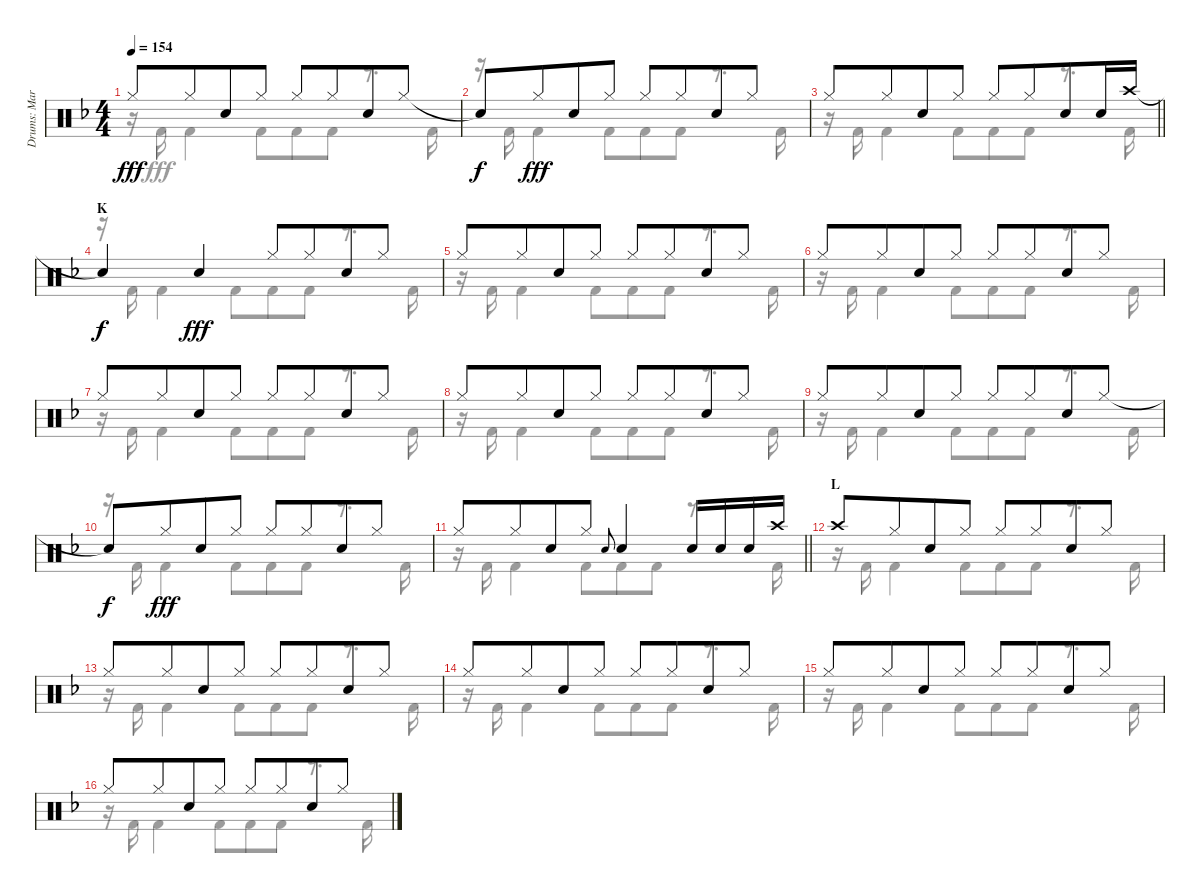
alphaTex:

\track ("Drums: Mark" "Drums: Mar") {instrument percussion}
\staff {score}
\articulation defaults
\voice
\ts (4 4)
\tempo 154
\clef neutral
\ks f "Hi-Hat (closed)".8{dy fff} "Hi-Hat (closed)".8{beam merge} "Snare (hit) 2".8 "Hi-Hat (closed)".8 "Hi-Hat (closed)".8 "Hi-Hat (closed)".8{beam merge} "Snare (hit) 2".8 "Hi-Hat (closed)".8
|
"Snare (hit)"{t}.8{dy f} "Hi-Hat (closed)".8{dy fff beam merge} "Snare (hit) 2".8 "Hi-Hat (closed)".8 "Hi-Hat (closed)".8 "Hi-Hat (closed)".8{beam merge} "Snare (hit) 2".8 "Hi-Hat (closed)".8 |
\barLineRight lightlight "Hi-Hat (closed)".8 "Hi-Hat (closed)".8{beam merge} "Snare (hit) 2".8 "Hi-Hat (closed)".8 "Hi-Hat (closed)".8 "Hi-Hat (closed)".8{beam merge} "Snare (hit) 2".8 "Snare (hit) 2".16 "Crash high (hit)".16
|
\section ("" "K")
"Snare (hit)"{t}.4{dy f beam merge} "Snare (hit) 2".4{dy fff} "Hi-Hat (closed)".8 "Hi-Hat (closed)".8{beam merge} "Snare (hit) 2".8 "Hi-Hat (closed)".8 |
"Hi-Hat (closed)".8 "Hi-Hat (closed)".8{beam merge} "Snare (hit) 2".8 "Hi-Hat (closed)".8 "Hi-Hat (closed)".8 "Hi-Hat (closed)".8{beam merge} "Snare (hit) 2".8 "Hi-Hat (closed)".8 |
"Hi-Hat (closed)".8 "Hi-Hat (closed)".8{beam merge} "Snare (hit) 2".8 "Hi-Hat (closed)".8 "Hi-Hat (closed)".8 "Hi-Hat (closed)".8{beam merge} "Snare (hit) 2".8 "Hi-Hat (closed)".8 |
"Hi-Hat (closed)".8 "Hi-Hat (closed)".8{beam merge} "Snare (hit) 2".8 "Hi-Hat (closed)".8 "Hi-Hat (closed)".8 "Hi-Hat (closed)".8{beam merge} "Snare (hit) 2".8 "Hi-Hat (closed)".8 |
"Hi-Hat (closed)".8 "Hi-Hat (closed)".8{beam merge} "Snare (hit) 2".8 "Hi-Hat (closed)".8 "Hi-Hat (closed)".8 "Hi-Hat (closed)".8{beam merge} "Snare (hit) 2".8 "Hi-Hat (closed)".8 |
"Hi-Hat (closed)".8 "Hi-Hat (closed)".8{beam merge} "Snare (hit) 2".8 "Hi-Hat (closed)".8 "Hi-Hat (closed)".8 "Hi-Hat (closed)".8{beam merge} "Snare (hit) 2".8 "Hi-Hat (closed)".8 |
"Snare (hit)"{t}.8{dy f} "Hi-Hat (closed)".8{dy fff beam merge} "Snare (hit) 2".8 "Hi-Hat (closed)".8 "Hi-Hat (closed)".8 "Hi-Hat (closed)".8{beam merge} "Snare (hit) 2".8 "Hi-Hat (closed)".8 |
\barLineRight lightlight "Hi-Hat (closed)".8 "Hi-Hat (closed)".8{beam merge} "Snare (hit) 2".8 "Hi-Hat (closed)".8 "Electric Snare (hit)".8{gr onbeat} "Snare (hit) 2".4{beam merge} "Snare (hit) 2".16 "Snare (hit) 2".16 "Snare (hit) 2".16 "Crash high (hit)".16
|
\section ("" "L")
"Crash high (hit)".8 "Hi-Hat (closed)".8{beam merge} "Snare (hit) 2".8 "Hi-Hat (closed)".8 "Hi-Hat (closed)".8 "Hi-Hat (closed)".8{beam merge} "Snare (hit) 2".8 "Hi-Hat (closed)".8 |
"Hi-Hat (closed)".8 "Hi-Hat (closed)".8{beam merge} "Snare (hit) 2".8 "Hi-Hat (closed)".8 "Hi-Hat (closed)".8 "Hi-Hat (closed)".8{beam merge} "Snare (hit) 2".8 "Hi-Hat (closed)".8 |
"Hi-Hat (closed)".8 "Hi-Hat (closed)".8{beam merge} "Snare (hit) 2".8 "Hi-Hat (closed)".8 "Hi-Hat (closed)".8 "Hi-Hat (closed)".8{beam merge} "Snare (hit) 2".8 "Hi-Hat (closed)".8 |
"Hi-Hat (closed)".8 "Hi-Hat (closed)".8{beam merge} "Snare (hit) 2".8 "Hi-Hat (closed)".8 "Hi-Hat (closed)".8 "Hi-Hat (closed)".8{beam merge} "Snare (hit) 2".8 "Hi-Hat (closed)".8 |
"Hi-Hat (closed)".8 "Hi-Hat (closed)".8{beam merge} "Snare (hit) 2".8 "Hi-Hat (closed)".8 "Hi-Hat (closed)".8 "Hi-Hat (closed)".8{beam merge} "Snare (hit) 2".8 "Hi-Hat (closed)".8
\voice
\clef neutral
\ottava regular
\simile none
\ks f
r.16{dy fff} "Kick (hit) 2".16 "Kick (hit) 2".4 "Kick (hit) 2".8{beam merge} "Kick (hit) 2".8 "Kick (hit) 2".8 r.8{d} "Kick (hit) 2".16 |
r.16 "Kick (hit) 2".16 "Kick (hit) 2".4 "Kick (hit) 2".8{beam merge} "Kick (hit) 2".8 "Kick (hit) 2".8 r.8{d} "Kick (hit) 2".16 |
\barLineRight lightlight
r.16 "Kick (hit) 2".16 "Kick (hit) 2".4 "Kick (hit) 2".8{beam merge} "Kick (hit) 2".8 "Kick (hit) 2".8 r.8{d} "Kick (hit) 2".16 |
r.16 "Kick (hit) 2".16 "Kick (hit) 2".4 "Kick (hit) 2".8{beam merge} "Kick (hit) 2".8 "Kick (hit) 2".8 r.8{d} "Kick (hit) 2".16 |
r.16 "Kick (hit) 2".16 "Kick (hit) 2".4 "Kick (hit) 2".8{beam merge} "Kick (hit) 2".8 "Kick (hit) 2".8 r.8{d} "Kick (hit) 2".16 |
r.16 "Kick (hit) 2".16 "Kick (hit) 2".4 "Kick (hit) 2".8{beam merge} "Kick (hit) 2".8 "Kick (hit) 2".8 r.8{d} "Kick (hit) 2".16 |
r.16 "Kick (hit) 2".16 "Kick (hit) 2".4 "Kick (hit) 2".8{beam merge} "Kick (hit) 2".8 "Kick (hit) 2".8 r.8{d} "Kick (hit) 2".16 |
r.16 "Kick (hit) 2".16 "Kick (hit) 2".4 "Kick (hit) 2".8{beam merge} "Kick (hit) 2".8 "Kick (hit) 2".8 r.8{d} "Kick (hit) 2".16 |
r.16 "Kick (hit) 2".16 "Kick (hit) 2".4 "Kick (hit) 2".8{beam merge} "Kick (hit) 2".8 "Kick (hit) 2".8 r.8{d} "Kick (hit) 2".16 |
r.16 "Kick (hit) 2".16 "Kick (hit) 2".4 "Kick (hit) 2".8{beam merge} "Kick (hit) 2".8 "Kick (hit) 2".8 r.8{d} "Kick (hit) 2".16 |
\barLineRight lightlight
r.16 "Kick (hit) 2".16 "Kick (hit) 2".4 "Kick (hit) 2".8{beam merge} "Kick (hit) 2".8 "Kick (hit) 2".8 r.8{d} "Kick (hit) 2".16 |
r.16 "Kick (hit) 2".16 "Kick (hit) 2".4 "Kick (hit) 2".8{beam merge} "Kick (hit) 2".8 "Kick (hit) 2".8 r.8{d} "Kick (hit) 2".16 |
r.16 "Kick (hit) 2".16 "Kick (hit) 2".4 "Kick (hit) 2".8{beam merge} "Kick (hit) 2".8 "Kick (hit) 2".8 r.8{d} "Kick (hit) 2".16 |
r.16 "Kick (hit) 2".16 "Kick (hit) 2".4 "Kick (hit) 2".8{beam merge} "Kick (hit) 2".8 "Kick (hit) 2".8 r.8{d} "Kick (hit) 2".16 |
r.16 "Kick (hit) 2".16 "Kick (hit) 2".4 "Kick (hit) 2".8{beam merge} "Kick (hit) 2".8 "Kick (hit) 2".8 r.8{d} "Kick (hit) 2".16 |
r.16 "Kick (hit) 2".16 "Kick (hit) 2".4 "Kick (hit) 2".8{beam merge} "Kick (hit) 2".8 "Kick (hit) 2".8 r.8{d} "Kick (hit) 2".16
